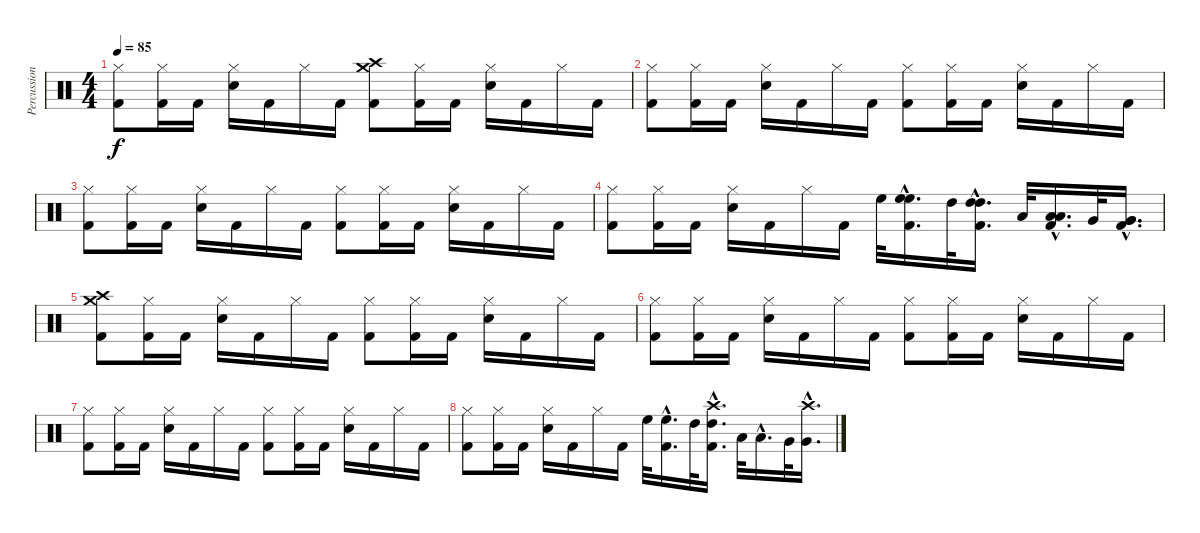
\track ("Percussion" "Percussion") {instrument percussion}
\staff {score}
\articulation defaults
\ts (4 4)
\tempo 85
\clef neutral
\ks c
("Hi-Hat (closed)" "Kick (hit) 2").8{dy f} ("Hi-Hat (closed)" "Kick (hit) 2").16 "Kick (hit) 2".16 ("Hi-Hat (closed)" "Snare (hit) 2").16 "Kick (hit) 2".16 "Hi-Hat (closed)".16 "Kick (hit) 2".16 ("Crash high (hit)" "Crash medium (hit)" "Kick (hit) 2").8 ("Hi-Hat (closed)" "Kick (hit) 2").16 "Kick (hit) 2".16 ("Hi-Hat (closed)" "Snare (hit) 2").16 "Kick (hit) 2".16 "Hi-Hat (closed)".16 "Kick (hit) 2".16 |
("Hi-Hat (closed)" "Kick (hit) 2").8 ("Hi-Hat (closed)" "Kick (hit) 2").16 "Kick (hit) 2".16 ("Hi-Hat (closed)" "Snare (hit) 2").16 "Kick (hit) 2".16 "Hi-Hat (closed)".16 "Kick (hit) 2".16 ("Hi-Hat (closed)" "Kick (hit) 2").8 ("Hi-Hat (closed)" "Kick (hit) 2").16 "Kick (hit) 2".16 ("Hi-Hat (closed)" "Snare (hit) 2").16 "Kick (hit) 2".16 "Hi-Hat (closed)".16 "Kick (hit) 2".16 |
("Hi-Hat (closed)" "Kick (hit) 2").8 ("Hi-Hat (closed)" "Kick (hit) 2").16 "Kick (hit) 2".16 ("Hi-Hat (closed)" "Snare (hit) 2").16 "Kick (hit) 2".16 "Hi-Hat (closed)".16 "Kick (hit) 2".16 ("Hi-Hat (closed)" "Kick (hit) 2").8 ("Hi-Hat (closed)" "Kick (hit) 2").16 "Kick (hit) 2".16 ("Hi-Hat (closed)" "Snare (hit) 2").16 "Kick (hit) 2".16 "Hi-Hat (closed)".16 "Kick (hit) 2".16 |
("Hi-Hat (closed)" "Kick (hit) 2").8 ("Hi-Hat (closed)" "Kick (hit) 2").16 "Kick (hit) 2".16 ("Hi-Hat (closed)" "Snare (hit) 2").16 "Kick (hit) 2".16 "Hi-Hat (closed)".16 "Kick (hit) 2".16 "High Floor Tom (hit)".32 ("High Floor Tom (hit)"{hac} "High Floor Tom (hit)"{hac} "Kick (hit) 2"{hac}).16{d} "High Tom (hit)".32 ("High Tom (hit)"{hac} "High Tom (hit)"{hac} "Kick (hit) 2"{hac}).16{d} "Low Tom (hit)".32 ("Low Tom (hit)"{hac} "Low Tom (hit)"{hac} "Kick (hit) 2"{hac}).16{d} "Very Low Tom (hit)".32 ("Very Low Tom (hit)"{hac} "Very Low Tom (hit)"{hac} "Kick (hit) 2"{hac}).16{d} |
("Crash high (hit)" "Crash medium (hit)" "Kick (hit) 2").8 ("Hi-Hat (closed)" "Kick (hit) 2").16 "Kick (hit) 2".16 ("Hi-Hat (closed)" "Snare (hit) 2").16 "Kick (hit) 2".16 "Hi-Hat (closed)".16 "Kick (hit) 2".16 ("Hi-Hat (closed)" "Kick (hit) 2").8 ("Hi-Hat (closed)" "Kick (hit) 2").16 "Kick (hit) 2".16 ("Hi-Hat (closed)" "Snare (hit) 2").16 "Kick (hit) 2".16 "Hi-Hat (closed)".16 "Kick (hit) 2".16 |
("Hi-Hat (closed)" "Kick (hit) 2").8 ("Hi-Hat (closed)" "Kick (hit) 2").16 "Kick (hit) 2".16 ("Hi-Hat (closed)" "Snare (hit) 2").16 "Kick (hit) 2".16 "Hi-Hat (closed)".16 "Kick (hit) 2".16 ("Hi-Hat (closed)" "Kick (hit) 2").8 ("Hi-Hat (closed)" "Kick (hit) 2").16 "Kick (hit) 2".16 ("Hi-Hat (closed)" "Snare (hit) 2").16 "Kick (hit) 2".16 "Hi-Hat (closed)".16 "Kick (hit) 2".16 |
("Hi-Hat (closed)" "Kick (hit) 2").8 ("Hi-Hat (closed)" "Kick (hit) 2").16 "Kick (hit) 2".16 ("Hi-Hat (closed)" "Snare (hit) 2").16 "Kick (hit) 2".16 "Hi-Hat (closed)".16 "Kick (hit) 2".16 ("Hi-Hat (closed)" "Kick (hit) 2").8 ("Hi-Hat (closed)" "Kick (hit) 2").16 "Kick (hit) 2".16 ("Hi-Hat (closed)" "Snare (hit) 2").16 "Kick (hit) 2".16 "Hi-Hat (closed)".16 "Kick (hit) 2".16 |
("Hi-Hat (closed)" "Kick (hit) 2").8 ("Hi-Hat (closed)" "Kick (hit) 2").16 "Kick (hit) 2".16 ("Hi-Hat (closed)" "Snare (hit) 2").16 "Kick (hit) 2".16 "Hi-Hat (closed)".16 "Kick (hit) 2".16 "High Floor Tom (hit)".32 ("High Floor Tom (hit)"{hac} "Kick (hit) 2"{hac}).16{d} "High Tom (hit)".32 ("Crash high (hit)"{hac} "High Tom (hit)"{hac} "Kick (hit) 2"{hac}).16{d} "Low Tom (hit)".32 "Low Tom (hit)"{hac}.16{d} "Very Low Tom (hit)".32 ("Crash high (hit)"{hac} "Very Low Tom (hit)"{hac}).16{d}
